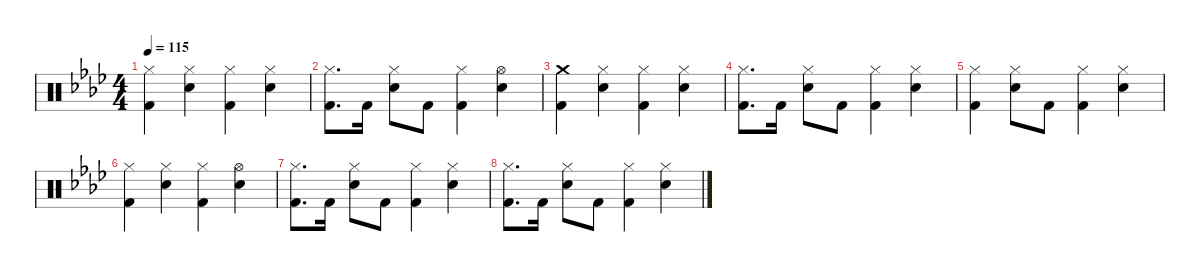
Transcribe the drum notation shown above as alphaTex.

\defaultSystemsLayout 4
\hideDynamics
\bracketExtendMode nobrackets
\singleTrackTrackNamePolicy hidden
\multiTrackTrackNamePolicy hidden
\firstSystemTrackNameMode fullname
\firstSystemTrackNameOrientation horizontal
\otherSystemsTrackNameOrientation horizontal
\track ("Drums" "drm.") {instrument percussion}
\staff {score}
\articulation defaults
\ts (4 4)
\tempo 115
\clef neutral
\ks ab
("Hi-Hat (closed)"{acc forcenatural} "Kick (hit) 2"{acc forcenatural}).4{dy f beam Down} ("Hi-Hat (closed)"{acc forcenatural} "Snare (hit) 2"{acc forcenatural}).4{beam Down} ("Hi-Hat (closed)"{acc forcenatural} "Kick (hit) 2"{acc forcenatural}).4{beam Down} ("Hi-Hat (closed)"{acc forcenatural} "Snare (hit) 2"{acc forcenatural}).4{beam Down} |
("Hi-Hat (closed)"{acc forcenatural} "Kick (hit) 2"{acc forcenatural}).8{d beam Down} "Kick (hit) 2"{acc forcenatural}.16{beam Down} ("Hi-Hat (closed)"{acc forcenatural} "Snare (hit) 2"{acc forcenatural}).8{beam Down} "Kick (hit) 2"{acc forcenatural}.8{beam Down} ("Hi-Hat (closed)"{acc forcenatural} "Kick (hit) 2"{acc forcenatural}).4{beam Down} ("Hi-Hat (open)"{acc forcenatural} "Snare (hit) 2"{acc forcenatural}).4{beam Down} |
("Crash medium (hit)"{acc forcenatural} "Kick (hit) 2"{acc forcenatural}).4{beam Down} ("Hi-Hat (closed)"{acc forcenatural} "Snare (hit) 2"{acc forcenatural}).4{beam Down} ("Hi-Hat (closed)"{acc forcenatural} "Kick (hit) 2"{acc forcenatural}).4{beam Down} ("Hi-Hat (closed)"{acc forcenatural} "Snare (hit) 2"{acc forcenatural}).4{beam Down} |
("Hi-Hat (closed)"{acc forcenatural} "Kick (hit) 2"{acc forcenatural}).8{d beam Down} "Kick (hit) 2"{acc forcenatural}.16{beam Down} ("Hi-Hat (closed)"{acc forcenatural} "Snare (hit) 2"{acc forcenatural}).8{beam Down} "Kick (hit) 2"{acc forcenatural}.8{beam Down} ("Hi-Hat (closed)"{acc forcenatural} "Kick (hit) 2"{acc forcenatural}).4{beam Down} ("Hi-Hat (closed)"{acc forcenatural} "Snare (hit) 2"{acc forcenatural}).4{beam Down} |
("Hi-Hat (closed)"{acc forcenatural} "Kick (hit) 2"{acc forcenatural}).4{beam Down} ("Hi-Hat (closed)"{acc forcenatural} "Snare (hit) 2"{acc forcenatural}).8{beam Down} "Kick (hit) 2"{acc forcenatural}.8{beam Down} ("Hi-Hat (closed)"{acc forcenatural} "Kick (hit) 2"{acc forcenatural}).4{beam Down} ("Hi-Hat (closed)"{acc forcenatural} "Snare (hit) 2"{acc forcenatural}).4{beam Down} |
("Hi-Hat (closed)"{acc forcenatural} "Kick (hit) 2"{acc forcenatural}).4{beam Down} ("Hi-Hat (closed)"{acc forcenatural} "Snare (hit) 2"{acc forcenatural}).4{beam Down} ("Hi-Hat (closed)"{acc forcenatural} "Kick (hit) 2"{acc forcenatural}).4{beam Down} ("Hi-Hat (open)"{acc forcenatural} "Snare (hit) 2"{acc forcenatural}).4{beam Down} |
("Hi-Hat (closed)"{acc forcenatural} "Kick (hit) 2"{acc forcenatural}).8{d beam Down} "Kick (hit) 2"{acc forcenatural}.16{beam Down} ("Hi-Hat (closed)"{acc forcenatural} "Snare (hit) 2"{acc forcenatural}).8{beam Down} "Kick (hit) 2"{acc forcenatural}.8{beam Down} ("Hi-Hat (closed)"{acc forcenatural} "Kick (hit) 2"{acc forcenatural}).4{beam Down} ("Hi-Hat (closed)"{acc forcenatural} "Snare (hit) 2"{acc forcenatural}).4{beam Down} |
("Hi-Hat (closed)"{acc forcenatural} "Kick (hit) 2"{acc forcenatural}).8{d beam Down} "Kick (hit) 2"{acc forcenatural}.16{beam Down} ("Hi-Hat (closed)"{acc forcenatural} "Snare (hit) 2"{acc forcenatural}).8{beam Down} "Kick (hit) 2"{acc forcenatural}.8{beam Down} ("Hi-Hat (closed)"{acc forcenatural} "Kick (hit) 2"{acc forcenatural}).4{beam Down} ("Hi-Hat (closed)"{acc forcenatural} "Snare (hit) 2"{acc forcenatural}).4{beam Down}
